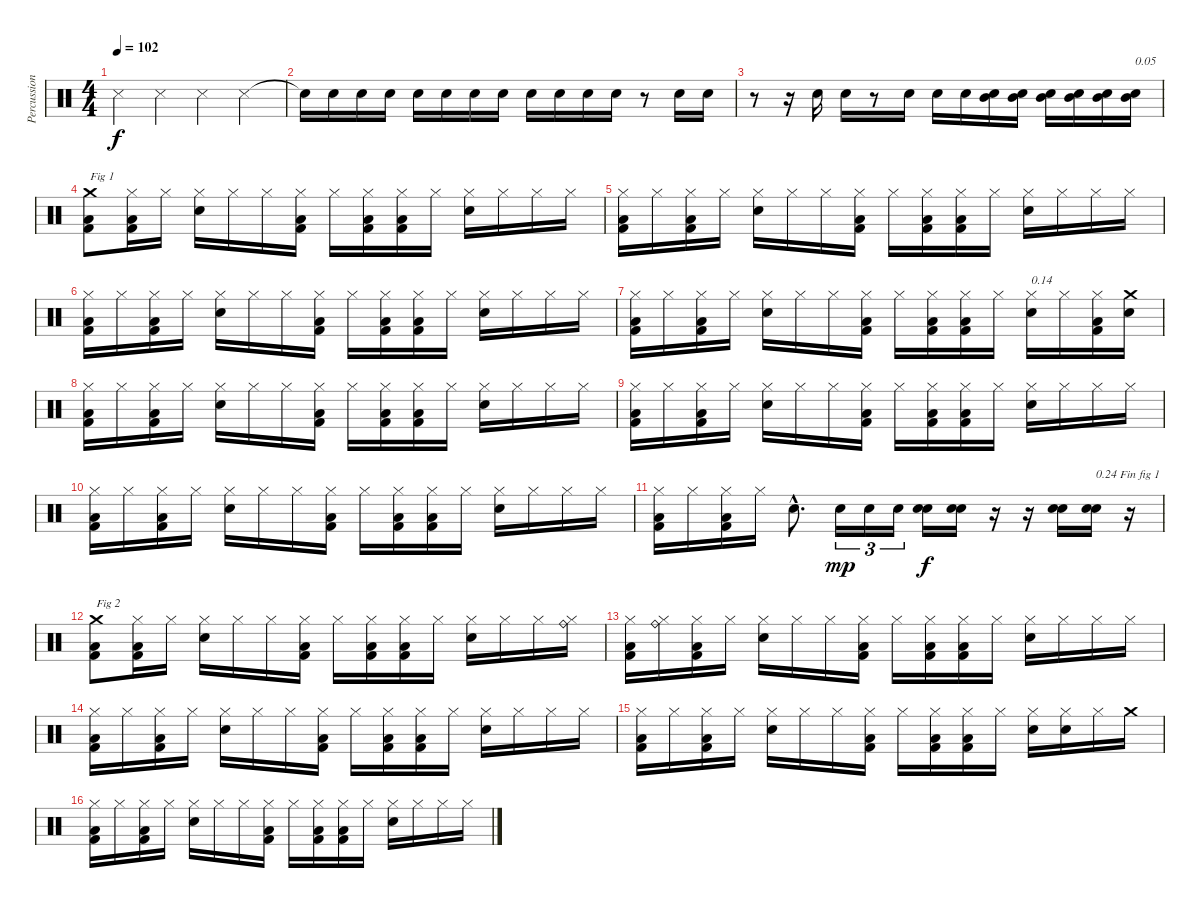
\track ("Percussions" "Percussion") {instrument percussion}
\staff {score}
\articulation defaults
\ts (4 4)
\tempo 102
\clef neutral
\ks c "Metronome (hit)".4{dy f} "Metronome (hit)".4 "Metronome (hit)".4 "Metronome (hit)".4
|
"Snare (hit)"{t}.16 "Snare (hit) 2".16 "Snare (hit) 2".16 "Snare (hit) 2".16 "Snare (hit) 2".16 "Snare (hit) 2".16 "Snare (hit) 2".16 "Snare (hit) 2".16 "Snare (hit) 2".16 "Snare (hit) 2".16 "Snare (hit) 2".16 "Snare (hit) 2".16 r.8 "Snare (hit) 2".16 "Snare (hit) 2".16 |
r.8 r.16 "Snare (hit) 2".16 "Snare (hit) 2".16 r.8 "Snare (hit) 2".16 "Snare (hit) 2".16 "Snare (hit) 2".16 ("Mid Tom (hit)" "Snare (hit) 2").16 ("Mid Tom (hit)" "Snare (hit) 2").16 ("Mid Tom (hit)" "Snare (hit) 2").16 ("Mid Tom (hit)" "Snare (hit) 2").16 ("Mid Tom (hit)" "Snare (hit) 2").16 ("Mid Tom (hit)" "Snare (hit) 2").16{txt "0.05"} |
("Kick (hit) 2" "Low Floor Tom (hit)" "Crash medium (hit)").8{txt "Fig 1"} ("Kick (hit) 2" "Low Floor Tom (hit)" "Hi-Hat (closed)").16 "Hi-Hat (closed)".16 ("Snare (hit) 2" "Hi-Hat (closed)").16 "Hi-Hat (closed)".16 "Hi-Hat (closed)".16 ("Kick (hit) 2" "Low Floor Tom (hit)" "Hi-Hat (closed)").16 "Hi-Hat (closed)".16 ("Kick (hit) 2" "Low Floor Tom (hit)" "Hi-Hat (closed)").16 ("Kick (hit) 2" "Low Floor Tom (hit)" "Hi-Hat (closed)").16 "Hi-Hat (closed)".16 ("Snare (hit) 2" "Hi-Hat (closed)").16 "Hi-Hat (closed)".16 "Hi-Hat (closed)".16 "Hi-Hat (closed)".16 |
("Kick (hit) 2" "Low Floor Tom (hit)" "Hi-Hat (closed)").16 "Hi-Hat (closed)".16 ("Kick (hit) 2" "Low Floor Tom (hit)" "Hi-Hat (closed)").16 "Hi-Hat (closed)".16 ("Snare (hit) 2" "Hi-Hat (closed)").16 "Hi-Hat (closed)".16 "Hi-Hat (closed)".16 ("Kick (hit) 2" "Low Floor Tom (hit)" "Hi-Hat (closed)").16 "Hi-Hat (closed)".16 ("Kick (hit) 2" "Low Floor Tom (hit)" "Hi-Hat (closed)").16 ("Kick (hit) 2" "Low Floor Tom (hit)" "Hi-Hat (closed)").16 "Hi-Hat (closed)".16 ("Snare (hit) 2" "Hi-Hat (closed)").16 "Hi-Hat (closed)".16 "Hi-Hat (closed)".16 "Hi-Hat (closed)".16 |
("Kick (hit) 2" "Low Floor Tom (hit)" "Hi-Hat (closed)").16 "Hi-Hat (closed)".16 ("Kick (hit) 2" "Low Floor Tom (hit)" "Hi-Hat (closed)").16 "Hi-Hat (closed)".16 ("Snare (hit) 2" "Hi-Hat (closed)").16 "Hi-Hat (closed)".16 "Hi-Hat (closed)".16 ("Kick (hit) 2" "Low Floor Tom (hit)" "Hi-Hat (closed)").16 "Hi-Hat (closed)".16 ("Kick (hit) 2" "Low Floor Tom (hit)" "Hi-Hat (closed)").16 ("Kick (hit) 2" "Low Floor Tom (hit)" "Hi-Hat (closed)").16 "Hi-Hat (closed)".16 ("Snare (hit) 2" "Hi-Hat (closed)").16 "Hi-Hat (closed)".16 "Hi-Hat (closed)".16 "Hi-Hat (closed)".16 |
("Kick (hit) 2" "Low Floor Tom (hit)" "Hi-Hat (closed)").16 "Hi-Hat (closed)".16 ("Kick (hit) 2" "Low Floor Tom (hit)" "Hi-Hat (closed)").16 "Hi-Hat (closed)".16 ("Snare (hit) 2" "Hi-Hat (closed)").16 "Hi-Hat (closed)".16 "Hi-Hat (closed)".16 ("Kick (hit) 2" "Low Floor Tom (hit)" "Hi-Hat (closed)").16 "Hi-Hat (closed)".16 ("Kick (hit) 2" "Low Floor Tom (hit)" "Hi-Hat (closed)").16 ("Kick (hit) 2" "Low Floor Tom (hit)" "Hi-Hat (closed)").16 "Hi-Hat (closed)".16 ("Snare (hit) 2" "Hi-Hat (closed)").16{txt "0.14"} "Hi-Hat (closed)".16 ("Kick (hit) 2" "Low Floor Tom (hit)" "Hi-Hat (closed)").16 ("Snare (hit) 2" "Crash medium (hit)").16 |
("Kick (hit) 2" "Low Floor Tom (hit)" "Hi-Hat (closed)").16 "Hi-Hat (closed)".16 ("Kick (hit) 2" "Low Floor Tom (hit)" "Hi-Hat (closed)").16 "Hi-Hat (closed)".16 ("Snare (hit) 2" "Hi-Hat (closed)").16 "Hi-Hat (closed)".16 "Hi-Hat (closed)".16 ("Kick (hit) 2" "Low Floor Tom (hit)" "Hi-Hat (closed)").16 "Hi-Hat (closed)".16 ("Kick (hit) 2" "Low Floor Tom (hit)" "Hi-Hat (closed)").16 ("Kick (hit) 2" "Low Floor Tom (hit)" "Hi-Hat (closed)").16 "Hi-Hat (closed)".16 ("Snare (hit) 2" "Hi-Hat (closed)").16 "Hi-Hat (closed)".16 "Hi-Hat (closed)".16 "Hi-Hat (closed)".16 |
("Kick (hit) 2" "Low Floor Tom (hit)" "Hi-Hat (closed)").16 "Hi-Hat (closed)".16 ("Kick (hit) 2" "Low Floor Tom (hit)" "Hi-Hat (closed)").16 "Hi-Hat (closed)".16 ("Snare (hit) 2" "Hi-Hat (closed)").16 "Hi-Hat (closed)".16 "Hi-Hat (closed)".16 ("Kick (hit) 2" "Low Floor Tom (hit)" "Hi-Hat (closed)").16 "Hi-Hat (closed)".16 ("Kick (hit) 2" "Low Floor Tom (hit)" "Hi-Hat (closed)").16 ("Kick (hit) 2" "Low Floor Tom (hit)" "Hi-Hat (closed)").16 "Hi-Hat (closed)".16 ("Snare (hit) 2" "Hi-Hat (closed)").16 "Hi-Hat (closed)".16 "Hi-Hat (closed)".16 "Hi-Hat (closed)".16 |
("Kick (hit) 2" "Low Floor Tom (hit)" "Hi-Hat (closed)").16 "Hi-Hat (closed)".16 ("Kick (hit) 2" "Low Floor Tom (hit)" "Hi-Hat (closed)").16 "Hi-Hat (closed)".16 ("Snare (hit) 2" "Hi-Hat (closed)").16 "Hi-Hat (closed)".16 "Hi-Hat (closed)".16 ("Kick (hit) 2" "Low Floor Tom (hit)" "Hi-Hat (closed)").16 "Hi-Hat (closed)".16 ("Kick (hit) 2" "Low Floor Tom (hit)" "Hi-Hat (closed)").16 ("Kick (hit) 2" "Low Floor Tom (hit)" "Hi-Hat (closed)").16 "Hi-Hat (closed)".16 ("Snare (hit) 2" "Hi-Hat (closed)").16 "Hi-Hat (closed)".16 "Hi-Hat (closed)".16 "Hi-Hat (closed)".16 |
("Kick (hit) 2" "Low Floor Tom (hit)" "Hi-Hat (closed)").16 "Hi-Hat (closed)".16 ("Kick (hit) 2" "Low Floor Tom (hit)" "Hi-Hat (closed)").16 "Hi-Hat (closed)".16 "Snare (hit) 2"{hac}.8{d} "Snare (hit) 2".16{tu (3 2) dy mp} "Snare (hit) 2".16{tu (3 2)} "Snare (hit) 2".16{tu (3 2)} ("Electric Snare (hit)" "Hand Clap (hit)").16{dy f} ("Electric Snare (hit)" "Hand Clap (hit)").16 r.16 r.16 ("Electric Snare (hit)" "Hand Clap (hit)").16 ("Electric Snare (hit)" "Hand Clap (hit)").16{txt "0.24 Fin fig 1"} r.16 |
("Kick (hit) 2" "Low Floor Tom (hit)" "Crash medium (hit)").8{txt "Fig 2"} ("Kick (hit) 2" "Low Floor Tom (hit)" "Hi-Hat (closed)").16 "Hi-Hat (closed)".16 ("Snare (hit) 2" "Hi-Hat (closed)").16 "Hi-Hat (closed)".16 "Hi-Hat (closed)".16 ("Kick (hit) 2" "Low Floor Tom (hit)" "Hi-Hat (closed)").16 "Hi-Hat (closed)".16 ("Kick (hit) 2" "Low Floor Tom (hit)" "Hi-Hat (closed)").16 ("Kick (hit) 2" "Low Floor Tom (hit)" "Hi-Hat (closed)").16 "Hi-Hat (closed)".16 ("Snare (hit) 2" "Hi-Hat (closed)").16 "Hi-Hat (closed)".16 "Hi-Hat (closed)".16 ("Ride (bell)" "Hi-Hat (closed)").16 |
("Kick (hit) 2" "Low Floor Tom (hit)" "Hi-Hat (closed)").16 ("Ride (bell)" "Hi-Hat (closed)").16 ("Kick (hit) 2" "Low Floor Tom (hit)" "Hi-Hat (closed)").16 "Hi-Hat (closed)".16 ("Snare (hit) 2" "Hi-Hat (closed)").16 "Hi-Hat (closed)".16 "Hi-Hat (closed)".16 ("Kick (hit) 2" "Low Floor Tom (hit)" "Hi-Hat (closed)").16 "Hi-Hat (closed)".16 ("Kick (hit) 2" "Low Floor Tom (hit)" "Hi-Hat (closed)").16 ("Kick (hit) 2" "Low Floor Tom (hit)" "Hi-Hat (closed)").16 "Hi-Hat (closed)".16 ("Snare (hit) 2" "Hi-Hat (closed)").16 "Hi-Hat (closed)".16 "Hi-Hat (closed)".16 "Hi-Hat (closed)".16 |
("Kick (hit) 2" "Low Floor Tom (hit)" "Hi-Hat (closed)").16 "Hi-Hat (closed)".16 ("Kick (hit) 2" "Low Floor Tom (hit)" "Hi-Hat (closed)").16 "Hi-Hat (closed)".16 ("Snare (hit) 2" "Hi-Hat (closed)").16 "Hi-Hat (closed)".16 "Hi-Hat (closed)".16 ("Kick (hit) 2" "Low Floor Tom (hit)" "Hi-Hat (closed)").16 "Hi-Hat (closed)".16 ("Kick (hit) 2" "Low Floor Tom (hit)" "Hi-Hat (closed)").16 ("Kick (hit) 2" "Low Floor Tom (hit)" "Hi-Hat (closed)").16 "Hi-Hat (closed)".16 ("Snare (hit) 2" "Hi-Hat (closed)").16 "Hi-Hat (closed)".16 "Hi-Hat (closed)".16 "Hi-Hat (closed)".16 |
("Kick (hit) 2" "Low Floor Tom (hit)" "Hi-Hat (closed)").16 "Hi-Hat (closed)".16 ("Kick (hit) 2" "Low Floor Tom (hit)" "Hi-Hat (closed)").16 "Hi-Hat (closed)".16 ("Snare (hit) 2" "Hi-Hat (closed)").16 "Hi-Hat (closed)".16 "Hi-Hat (closed)".16 ("Kick (hit) 2" "Low Floor Tom (hit)" "Hi-Hat (closed)").16 "Hi-Hat (closed)".16 ("Kick (hit) 2" "Low Floor Tom (hit)" "Hi-Hat (closed)").16 ("Kick (hit) 2" "Low Floor Tom (hit)" "Hi-Hat (closed)").16 "Hi-Hat (closed)".16 ("Snare (hit) 2" "Hi-Hat (closed)").16 ("Snare (hit) 2" "Hi-Hat (closed)").16 "Hi-Hat (closed)".16 "Crash medium (hit)".16 |
("Kick (hit) 2" "Low Floor Tom (hit)" "Hi-Hat (closed)").16 "Hi-Hat (closed)".16 ("Kick (hit) 2" "Low Floor Tom (hit)" "Hi-Hat (closed)").16 "Hi-Hat (closed)".16 ("Snare (hit) 2" "Hi-Hat (closed)").16 "Hi-Hat (closed)".16 "Hi-Hat (closed)".16 ("Kick (hit) 2" "Low Floor Tom (hit)" "Hi-Hat (closed)").16 "Hi-Hat (closed)".16 ("Kick (hit) 2" "Low Floor Tom (hit)" "Hi-Hat (closed)").16 ("Kick (hit) 2" "Low Floor Tom (hit)" "Hi-Hat (closed)").16 "Hi-Hat (closed)".16 ("Snare (hit) 2" "Hi-Hat (closed)").16 "Hi-Hat (closed)".16 "Hi-Hat (closed)".16 "Hi-Hat (closed)".16
